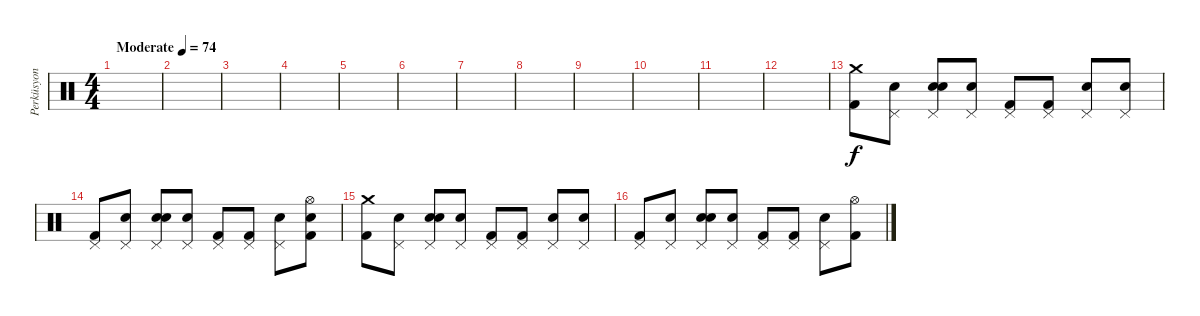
\track ("Perküsyon" "Perküsyon") {instrument percussion}
\staff {score}
\articulation defaults
\ts (4 4)
\tempo (74 "Moderate")
\clef neutral
\ks c
|
|
|
|
|
|
|
|
|
|
|
|
("Crash medium (hit)" "Kick (hit) 2").8 ("Pedal Hi-Hat (hit)" "Snare (hit)").8 ("Pedal Hi-Hat (hit)" "Electric Snare (hit)" "Snare (hit)").8 ("Pedal Hi-Hat (hit)" "Snare (hit)").8 ("Pedal Hi-Hat (hit)" "Kick (hit) 2").8 ("Pedal Hi-Hat (hit)" "Kick (hit) 2").8 ("Pedal Hi-Hat (hit)" "Electric Snare (hit)").8 ("Pedal Hi-Hat (hit)" "Snare (hit)").8 |
("Pedal Hi-Hat (hit)" "Kick (hit) 2").8 ("Pedal Hi-Hat (hit)" "Snare (hit)").8 ("Pedal Hi-Hat (hit)" "Electric Snare (hit)" "Snare (hit)").8 ("Pedal Hi-Hat (hit)" "Snare (hit)").8 ("Pedal Hi-Hat (hit)" "Kick (hit) 2").8 ("Pedal Hi-Hat (hit)" "Kick (hit) 2").8 ("Pedal Hi-Hat (hit)" "Electric Snare (hit)").8 ("Hi-Hat (open)" "Snare (hit)" "Kick (hit) 2").8 |
("Crash medium (hit)" "Kick (hit) 2").8 ("Pedal Hi-Hat (hit)" "Snare (hit)").8 ("Pedal Hi-Hat (hit)" "Electric Snare (hit)" "Snare (hit)").8 ("Pedal Hi-Hat (hit)" "Snare (hit)").8 ("Pedal Hi-Hat (hit)" "Kick (hit) 2").8 ("Pedal Hi-Hat (hit)" "Kick (hit) 2").8 ("Pedal Hi-Hat (hit)" "Electric Snare (hit)").8 ("Pedal Hi-Hat (hit)" "Snare (hit)").8 |
("Pedal Hi-Hat (hit)" "Kick (hit) 2").8 ("Pedal Hi-Hat (hit)" "Snare (hit)").8 ("Pedal Hi-Hat (hit)" "Electric Snare (hit)" "Snare (hit)").8 ("Pedal Hi-Hat (hit)" "Snare (hit)").8 ("Pedal Hi-Hat (hit)" "Kick (hit) 2").8 ("Pedal Hi-Hat (hit)" "Kick (hit) 2").8 ("Pedal Hi-Hat (hit)" "Electric Snare (hit)").8 ("Hi-Hat (open)" "Kick (hit) 2").8
